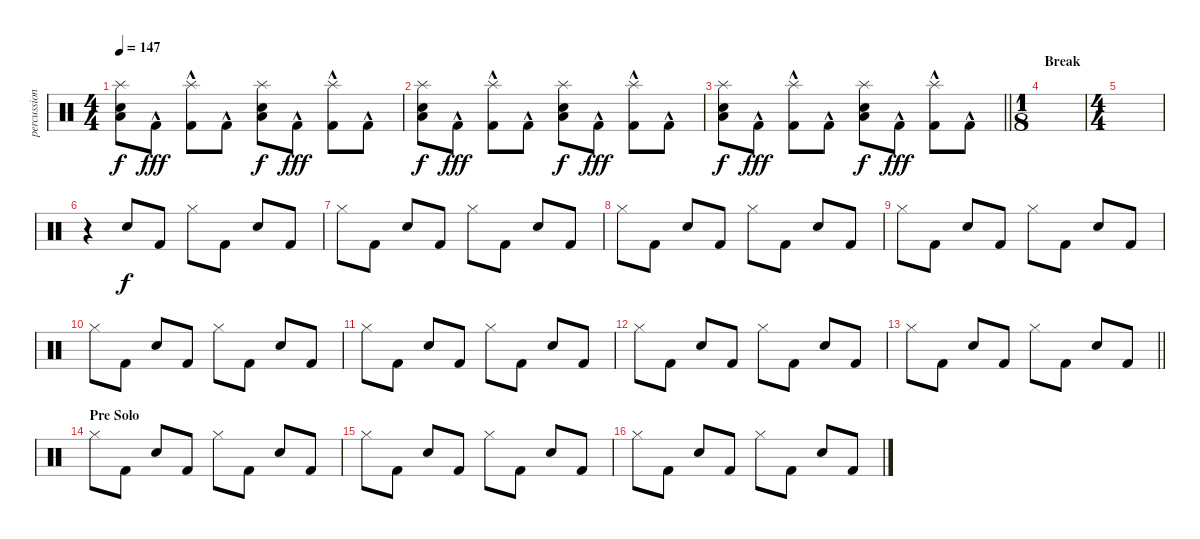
\track ("percussion" "percussion") {instrument percussion}
\staff {score}
\articulation defaults
\ts (4 4)
\tempo 147
\clef neutral
\ks c
("Electric Snare (hit)" "Low Floor Tom (hit)" "Splash (hit)").8{dy f} "Kick (hit) 2"{hac}.8{dy fff} ("Kick (hit) 2"{hac} "Splash (hit)").8 "Kick (hit) 2"{hac}.8 ("Electric Snare (hit)" "Low Floor Tom (hit)" "Splash (hit)").8{dy f} "Kick (hit) 2"{hac}.8{dy fff} ("Kick (hit) 2"{hac} "Splash (hit)").8 "Kick (hit) 2"{hac}.8 |
("Electric Snare (hit)" "Low Floor Tom (hit)" "Splash (hit)").8{dy f} "Kick (hit) 2"{hac}.8{dy fff} ("Kick (hit) 2"{hac} "Splash (hit)").8 "Kick (hit) 2"{hac}.8 ("Electric Snare (hit)" "Low Floor Tom (hit)" "Splash (hit)").8{dy f} "Kick (hit) 2"{hac}.8{dy fff} ("Kick (hit) 2"{hac} "Splash (hit)").8 "Kick (hit) 2"{hac}.8 |
\barLineRight lightlight
("Electric Snare (hit)" "Low Floor Tom (hit)" "Splash (hit)").8{dy f} "Kick (hit) 2"{hac}.8{dy fff} ("Kick (hit) 2"{hac} "Splash (hit)").8 "Kick (hit) 2"{hac}.8 ("Electric Snare (hit)" "Low Floor Tom (hit)" "Splash (hit)").8{dy f} "Kick (hit) 2"{hac}.8{dy fff} ("Kick (hit) 2"{hac} "Splash (hit)").8 "Kick (hit) 2"{hac}.8 |
\ts (1 8)
\section ("" "Break")
|
\ts (4 4)
|
r.4 "Electric Snare (hit)".8{dy f} "Kick (hit) 2".8 "Hi-Hat (closed)".8 "Kick (hit) 2".8 "Electric Snare (hit)".8 "Kick (hit) 2".8 |
"Hi-Hat (closed)".8 "Kick (hit) 2".8 "Electric Snare (hit)".8 "Kick (hit) 2".8 "Hi-Hat (closed)".8 "Kick (hit) 2".8 "Electric Snare (hit)".8 "Kick (hit) 2".8 |
"Hi-Hat (closed)".8 "Kick (hit) 2".8 "Electric Snare (hit)".8 "Kick (hit) 2".8 "Hi-Hat (closed)".8 "Kick (hit) 2".8 "Electric Snare (hit)".8 "Kick (hit) 2".8 |
"Hi-Hat (closed)".8 "Kick (hit) 2".8 "Electric Snare (hit)".8 "Kick (hit) 2".8 "Hi-Hat (closed)".8 "Kick (hit) 2".8 "Electric Snare (hit)".8 "Kick (hit) 2".8 |
"Hi-Hat (closed)".8 "Kick (hit) 2".8 "Electric Snare (hit)".8 "Kick (hit) 2".8 "Hi-Hat (closed)".8 "Kick (hit) 2".8 "Electric Snare (hit)".8 "Kick (hit) 2".8 |
"Hi-Hat (closed)".8 "Kick (hit) 2".8 "Electric Snare (hit)".8 "Kick (hit) 2".8 "Hi-Hat (closed)".8 "Kick (hit) 2".8 "Electric Snare (hit)".8 "Kick (hit) 2".8 |
"Hi-Hat (closed)".8 "Kick (hit) 2".8 "Electric Snare (hit)".8 "Kick (hit) 2".8 "Hi-Hat (closed)".8 "Kick (hit) 2".8 "Electric Snare (hit)".8 "Kick (hit) 2".8 |
\barLineRight lightlight "Hi-Hat (closed)".8 "Kick (hit) 2".8 "Electric Snare (hit)".8 "Kick (hit) 2".8 "Hi-Hat (closed)".8 "Kick (hit) 2".8 "Electric Snare (hit)".8 "Kick (hit) 2".8
|
\section ("" "Pre Solo")
"Hi-Hat (closed)".8 "Kick (hit) 2".8 "Electric Snare (hit)".8 "Kick (hit) 2".8 "Hi-Hat (closed)".8 "Kick (hit) 2".8 "Electric Snare (hit)".8 "Kick (hit) 2".8 |
"Hi-Hat (closed)".8 "Kick (hit) 2".8 "Electric Snare (hit)".8 "Kick (hit) 2".8 "Hi-Hat (closed)".8 "Kick (hit) 2".8 "Electric Snare (hit)".8 "Kick (hit) 2".8 |
"Hi-Hat (closed)".8 "Kick (hit) 2".8 "Electric Snare (hit)".8 "Kick (hit) 2".8 "Hi-Hat (closed)".8 "Kick (hit) 2".8 "Electric Snare (hit)".8 "Kick (hit) 2".8
